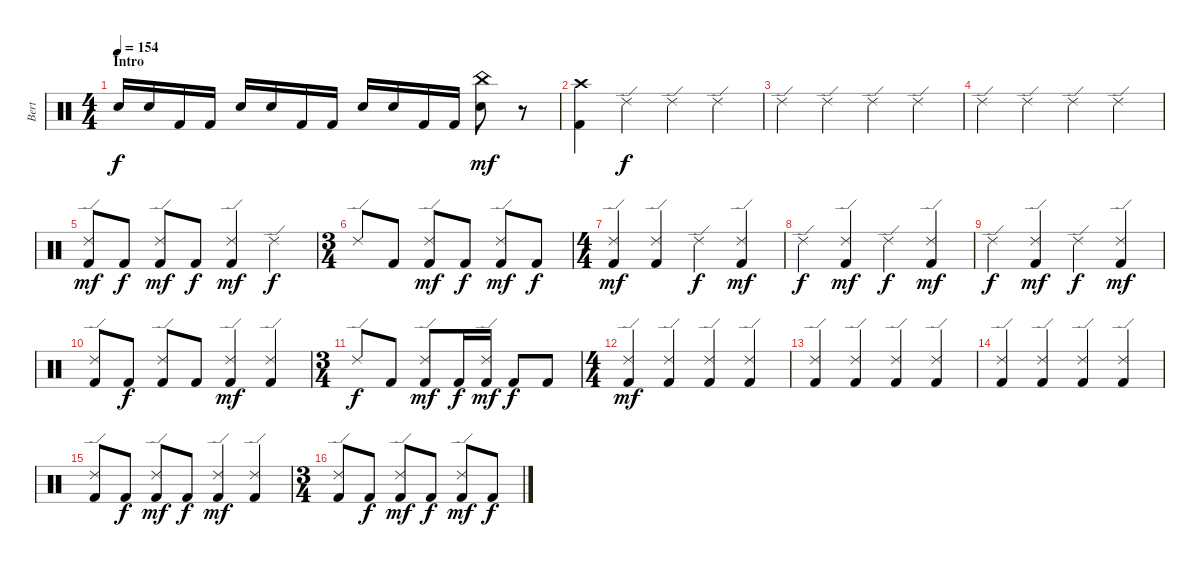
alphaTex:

\track ("Bert" "Bert") {instrument percussion}
\staff {score}
\articulation defaults
\ts (4 4)
\section ("" "Intro")
\tempo 154
\clef neutral
\ks c "Snare (hit) 2".16{dy f} "Snare (hit) 2".16 "Kick (hit) 2".16 "Kick (hit) 2".16 "Snare (hit) 2".16 "Snare (hit) 2".16 "Kick (hit) 2".16 "Kick (hit) 2".16 "Snare (hit) 2".16 "Snare (hit) 2".16 "Kick (hit) 2".16 "Kick (hit) 2".16
("China (hit)" "Snare (hit) 2").8{dy mf} r.8 |
("Crash high (hit)" "Kick (hit) 2").4 "Ride (edge) 2".4{dy f} "Ride (edge) 2".4 "Ride (edge) 2".4 |
"Ride (edge) 2".4 "Ride (edge) 2".4 "Ride (edge) 2".4 "Ride (edge) 2".4 |
"Ride (edge) 2".4 "Ride (edge) 2".4 "Ride (edge) 2".4 "Ride (edge) 2".4 |
("Ride (edge) 2" "Kick (hit) 2").8{dy mf} "Kick (hit) 2".8{dy f} ("Ride (edge) 2" "Kick (hit) 2").8{dy mf} "Kick (hit) 2".8{dy f} ("Ride (edge) 2" "Kick (hit) 2").4{dy mf} "Ride (edge) 2".4{dy f} |
\ts (3 4)
"Ride (edge) 2".8 "Kick (hit) 2".8 ("Ride (edge) 2" "Kick (hit) 2").8{dy mf} "Kick (hit) 2".8{dy f} ("Ride (edge) 2" "Kick (hit) 2").8{dy mf} "Kick (hit) 2".8{dy f} |
\ts (4 4)
("Ride (edge) 2" "Kick (hit) 2").4{dy mf} ("Ride (edge) 2" "Kick (hit) 2").4 "Ride (edge) 2".4{dy f} ("Ride (edge) 2" "Kick (hit) 2").4{dy mf} |
"Ride (edge) 2".4{dy f} ("Ride (edge) 2" "Kick (hit) 2").4{dy mf} "Ride (edge) 2".4{dy f} ("Ride (edge) 2" "Kick (hit) 2").4{dy mf} |
"Ride (edge) 2".4{dy f} ("Ride (edge) 2" "Kick (hit) 2").4{dy mf} "Ride (edge) 2".4{dy f} ("Ride (edge) 2" "Kick (hit) 2").4{dy mf} |
("Ride (edge) 2" "Kick (hit) 2").8 "Kick (hit) 2".8{dy f} ("Ride (edge) 2" "Kick (hit) 2").8 "Kick (hit) 2".8 ("Ride (edge) 2" "Kick (hit) 2").4{dy mf} ("Ride (edge) 2" "Kick (hit) 2").4 |
\ts (3 4)
"Ride (edge) 2".8{dy f} "Kick (hit) 2".8 ("Ride (edge) 2" "Kick (hit) 2").8{dy mf} "Kick (hit) 2".16{dy f} ("Ride (edge) 2" "Kick (hit) 2").16{dy mf} "Kick (hit) 2".8{dy f} "Kick (hit) 2".8 |
\ts (4 4)
("Ride (edge) 2" "Kick (hit) 2").4{dy mf} ("Ride (edge) 2" "Kick (hit) 2").4 ("Ride (edge) 2" "Kick (hit) 2").4 ("Ride (edge) 2" "Kick (hit) 2").4 |
("Ride (edge) 2" "Kick (hit) 2").4 ("Ride (edge) 2" "Kick (hit) 2").4 ("Ride (edge) 2" "Kick (hit) 2").4 ("Ride (edge) 2" "Kick (hit) 2").4 |
("Ride (edge) 2" "Kick (hit) 2").4 ("Ride (edge) 2" "Kick (hit) 2").4 ("Ride (edge) 2" "Kick (hit) 2").4 ("Ride (edge) 2" "Kick (hit) 2").4 |
("Ride (edge) 2" "Kick (hit) 2").8 "Kick (hit) 2".8{dy f} ("Ride (edge) 2" "Kick (hit) 2").8{dy mf} "Kick (hit) 2".8{dy f} ("Ride (edge) 2" "Kick (hit) 2").4{dy mf} ("Ride (edge) 2" "Kick (hit) 2").4 |
\ts (3 4)
("Ride (edge) 2" "Kick (hit) 2").8 "Kick (hit) 2".8{dy f} ("Ride (edge) 2" "Kick (hit) 2").8{dy mf} "Kick (hit) 2".8{dy f} ("Ride (edge) 2" "Kick (hit) 2").8{dy mf} "Kick (hit) 2".8{dy f}
